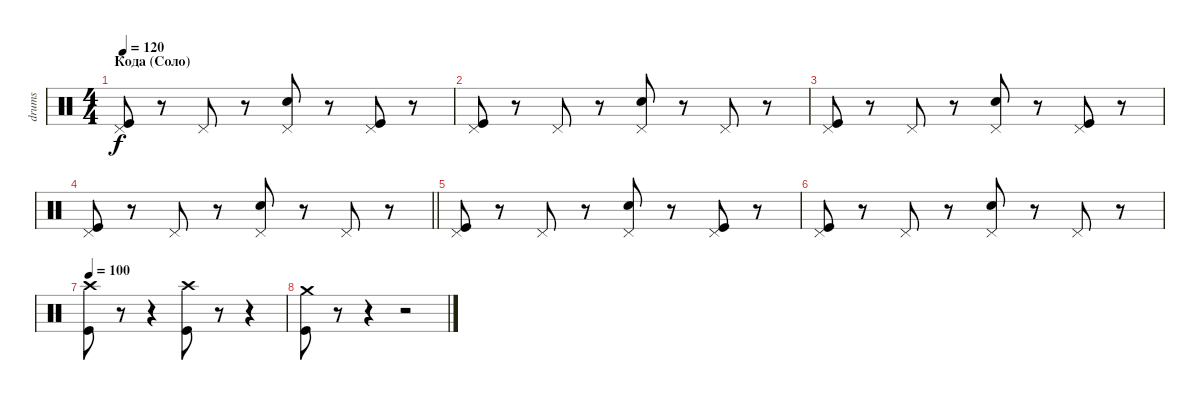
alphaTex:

\track ("drums" "drums") {instrument percussion}
\staff {score}
\articulation defaults
\ts (4 4)
\section ("" "Кода (Соло)")
\tempo 120
\clef neutral
\ks c
("Kick (hit)" "Pedal Hi-Hat (hit)").8{dy f} r.8 "Pedal Hi-Hat (hit)".8 r.8 ("Snare (hit) 2" "Pedal Hi-Hat (hit)").8 r.8 ("Kick (hit)" "Pedal Hi-Hat (hit)").8 r.8 |
("Kick (hit)" "Pedal Hi-Hat (hit)").8 r.8 "Pedal Hi-Hat (hit)".8 r.8 ("Snare (hit) 2" "Pedal Hi-Hat (hit)").8 r.8 "Pedal Hi-Hat (hit)".8 r.8 |
("Kick (hit)" "Pedal Hi-Hat (hit)").8 r.8 "Pedal Hi-Hat (hit)".8 r.8 ("Snare (hit) 2" "Pedal Hi-Hat (hit)").8 r.8 ("Kick (hit)" "Pedal Hi-Hat (hit)").8 r.8 |
\barLineRight lightlight
("Kick (hit)" "Pedal Hi-Hat (hit)").8 r.8 "Pedal Hi-Hat (hit)".8 r.8 ("Snare (hit) 2" "Pedal Hi-Hat (hit)").8 r.8 "Pedal Hi-Hat (hit)".8 r.8 |
("Kick (hit)" "Pedal Hi-Hat (hit)").8 r.8 "Pedal Hi-Hat (hit)".8 r.8 ("Snare (hit) 2" "Pedal Hi-Hat (hit)").8 r.8 ("Kick (hit)" "Pedal Hi-Hat (hit)").8 r.8 |
("Kick (hit)" "Pedal Hi-Hat (hit)").8 r.8 "Pedal Hi-Hat (hit)".8 r.8 ("Snare (hit) 2" "Pedal Hi-Hat (hit)").8 r.8 "Pedal Hi-Hat (hit)".8 r.8 |
\tempo 100
("Kick (hit)" "Crash high (hit)").8 r.8 r.4 ("Kick (hit)" "Crash high (hit)").8 r.8 r.4 |
("Kick (hit)" "Crash medium (hit)").8 r.8 r.4 r.2
